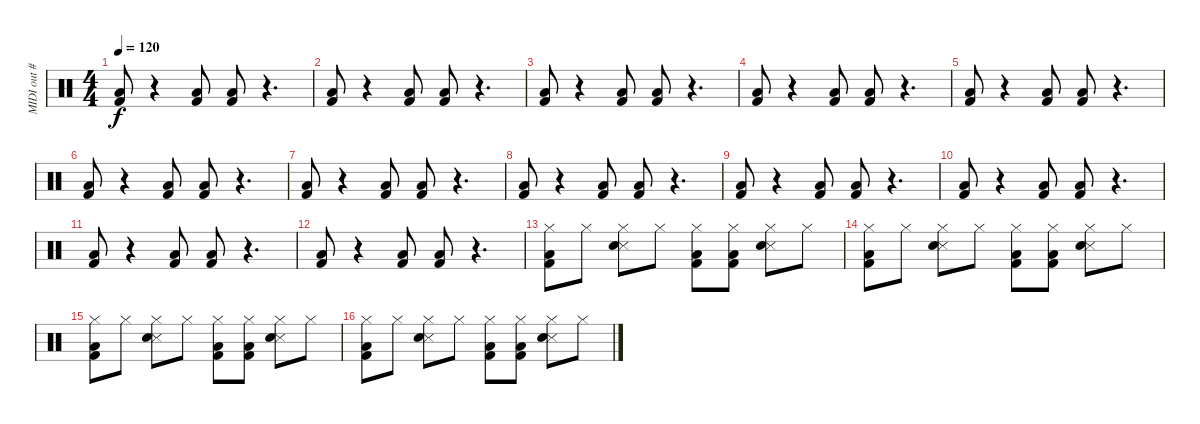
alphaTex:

\track ("MIDI out #4" "MIDI out #") {instrument percussion}
\staff {score}
\articulation defaults
\ts (4 4)
\tempo 120
\clef neutral
\ks c
("Low Tom (hit)" "Kick (hit) 2").8{dy f} r.4 ("Low Tom (hit)" "Kick (hit) 2").8 ("Low Tom (hit)" "Kick (hit) 2").8 r.4{d} |
("Low Tom (hit)" "Kick (hit) 2").8 r.4 ("Low Tom (hit)" "Kick (hit) 2").8 ("Low Tom (hit)" "Kick (hit) 2").8 r.4{d} |
("Low Tom (hit)" "Kick (hit) 2").8 r.4 ("Low Tom (hit)" "Kick (hit) 2").8 ("Low Tom (hit)" "Kick (hit) 2").8 r.4{d} |
("Low Tom (hit)" "Kick (hit) 2").8 r.4 ("Low Tom (hit)" "Kick (hit) 2").8 ("Low Tom (hit)" "Kick (hit) 2").8 r.4{d} |
("Low Tom (hit)" "Kick (hit) 2").8 r.4 ("Low Tom (hit)" "Kick (hit) 2").8 ("Low Tom (hit)" "Kick (hit) 2").8 r.4{d} |
("Low Tom (hit)" "Kick (hit) 2").8 r.4 ("Low Tom (hit)" "Kick (hit) 2").8 ("Low Tom (hit)" "Kick (hit) 2").8 r.4{d} |
("Low Tom (hit)" "Kick (hit) 2").8 r.4 ("Low Tom (hit)" "Kick (hit) 2").8 ("Low Tom (hit)" "Kick (hit) 2").8 r.4{d} |
("Low Tom (hit)" "Kick (hit) 2").8 r.4 ("Low Tom (hit)" "Kick (hit) 2").8 ("Low Tom (hit)" "Kick (hit) 2").8 r.4{d} |
("Low Tom (hit)" "Kick (hit) 2").8 r.4 ("Low Tom (hit)" "Kick (hit) 2").8 ("Low Tom (hit)" "Kick (hit) 2").8 r.4{d} |
("Low Tom (hit)" "Kick (hit) 2").8 r.4 ("Low Tom (hit)" "Kick (hit) 2").8 ("Low Tom (hit)" "Kick (hit) 2").8 r.4{d} |
("Low Tom (hit)" "Kick (hit) 2").8 r.4 ("Low Tom (hit)" "Kick (hit) 2").8 ("Low Tom (hit)" "Kick (hit) 2").8 r.4{d} |
("Low Tom (hit)" "Kick (hit) 2").8 r.4 ("Low Tom (hit)" "Kick (hit) 2").8 ("Low Tom (hit)" "Kick (hit) 2").8 r.4{d} |
("Hi-Hat (closed)" "Low Tom (hit)" "Kick (hit) 2").8 "Hi-Hat (closed)".8 ("Hi-Hat (closed)" "Snare (side stick) 3" "Snare (hit) 2").8 "Hi-Hat (closed)".8 ("Hi-Hat (closed)" "Low Tom (hit)" "Kick (hit) 2").8 ("Hi-Hat (closed)" "Low Tom (hit)" "Kick (hit) 2").8 ("Hi-Hat (closed)" "Snare (side stick) 3" "Snare (hit) 2").8 "Hi-Hat (closed)".8 |
("Hi-Hat (closed)" "Low Tom (hit)" "Kick (hit) 2").8 "Hi-Hat (closed)".8 ("Hi-Hat (closed)" "Snare (side stick) 3" "Snare (hit) 2").8 "Hi-Hat (closed)".8 ("Hi-Hat (closed)" "Low Tom (hit)" "Kick (hit) 2").8 ("Hi-Hat (closed)" "Low Tom (hit)" "Kick (hit) 2").8 ("Hi-Hat (closed)" "Snare (side stick) 3" "Snare (hit) 2").8 "Hi-Hat (closed)".8 |
("Hi-Hat (closed)" "Low Tom (hit)" "Kick (hit) 2").8 "Hi-Hat (closed)".8 ("Hi-Hat (closed)" "Snare (side stick) 3" "Snare (hit) 2").8 "Hi-Hat (closed)".8 ("Hi-Hat (closed)" "Low Tom (hit)" "Kick (hit) 2").8 ("Hi-Hat (closed)" "Low Tom (hit)" "Kick (hit) 2").8 ("Hi-Hat (closed)" "Snare (side stick) 3" "Snare (hit) 2").8 "Hi-Hat (closed)".8 |
("Hi-Hat (closed)" "Low Tom (hit)" "Kick (hit) 2").8 "Hi-Hat (closed)".8 ("Hi-Hat (closed)" "Snare (side stick) 3" "Snare (hit) 2").8 "Hi-Hat (closed)".8 ("Hi-Hat (closed)" "Low Tom (hit)" "Kick (hit) 2").8 ("Hi-Hat (closed)" "Low Tom (hit)" "Kick (hit) 2").8 ("Hi-Hat (closed)" "Snare (side stick) 3" "Snare (hit) 2").8 "Hi-Hat (closed)".8
